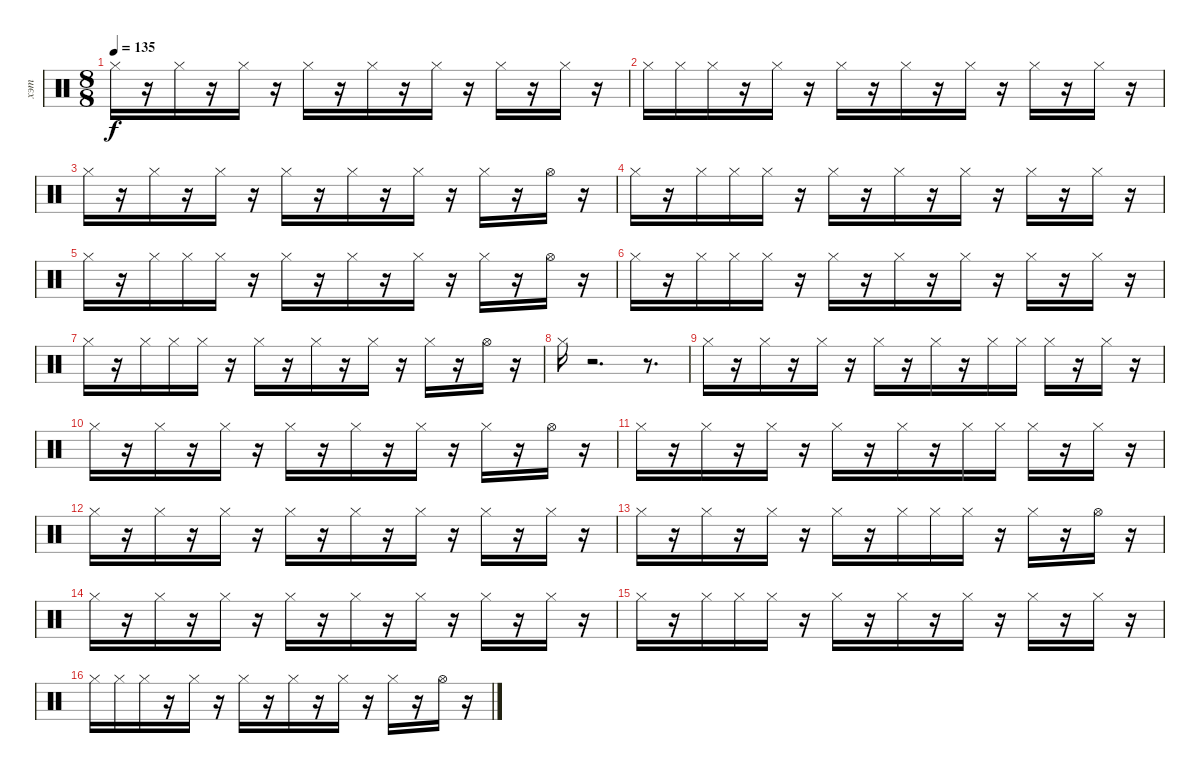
\track ("хэт" "хэт") {instrument percussion}
\staff {score}
\articulation defaults
\ts (8 8)
\tempo 135
\clef neutral
\ks c "Hi-Hat (closed)".16{dy f}
r.16 "Hi-Hat (closed)".16 r.16 "Hi-Hat (closed)".16 r.16 "Hi-Hat (closed)".16 r.16 "Hi-Hat (closed)".16 r.16 "Hi-Hat (closed)".16 r.16 "Hi-Hat (closed)".16 r.16 "Hi-Hat (closed)".16 r.16 |
"Hi-Hat (closed)".16 "Hi-Hat (closed)".16 "Hi-Hat (closed)".16 r.16 "Hi-Hat (closed)".16 r.16 "Hi-Hat (closed)".16 r.16 "Hi-Hat (closed)".16 r.16 "Hi-Hat (closed)".16 r.16 "Hi-Hat (closed)".16 r.16 "Hi-Hat (closed)".16 r.16 |
"Hi-Hat (closed)".16 r.16 "Hi-Hat (closed)".16 r.16 "Hi-Hat (closed)".16 r.16 "Hi-Hat (closed)".16 r.16 "Hi-Hat (closed)".16 r.16 "Hi-Hat (closed)".16 r.16 "Hi-Hat (closed)".16 r.16 "Hi-Hat (open)".16 r.16 |
"Hi-Hat (closed)".16 r.16 "Hi-Hat (closed)".16 "Hi-Hat (closed)".16 "Hi-Hat (closed)".16 r.16 "Hi-Hat (closed)".16 r.16 "Hi-Hat (closed)".16 r.16 "Hi-Hat (closed)".16 r.16 "Hi-Hat (closed)".16 r.16 "Hi-Hat (closed)".16 r.16 |
"Hi-Hat (closed)".16 r.16 "Hi-Hat (closed)".16 "Hi-Hat (closed)".16 "Hi-Hat (closed)".16 r.16 "Hi-Hat (closed)".16 r.16 "Hi-Hat (closed)".16 r.16 "Hi-Hat (closed)".16 r.16 "Hi-Hat (closed)".16 r.16 "Hi-Hat (open)".16 r.16 |
"Hi-Hat (closed)".16 r.16 "Hi-Hat (closed)".16 "Hi-Hat (closed)".16 "Hi-Hat (closed)".16 r.16 "Hi-Hat (closed)".16 r.16 "Hi-Hat (closed)".16 r.16 "Hi-Hat (closed)".16 r.16 "Hi-Hat (closed)".16 r.16 "Hi-Hat (closed)".16 r.16 |
"Hi-Hat (closed)".16 r.16 "Hi-Hat (closed)".16 "Hi-Hat (closed)".16 "Hi-Hat (closed)".16 r.16 "Hi-Hat (closed)".16 r.16 "Hi-Hat (closed)".16 r.16 "Hi-Hat (closed)".16 r.16 "Hi-Hat (closed)".16 r.16 "Hi-Hat (open)".16 r.16 |
"Hi-Hat (closed)".16 r.2{d} r.8{d} |
"Hi-Hat (closed)".16 r.16 "Hi-Hat (closed)".16 r.16 "Hi-Hat (closed)".16 r.16 "Hi-Hat (closed)".16 r.16 "Hi-Hat (closed)".16 r.16 "Hi-Hat (closed)".16 "Hi-Hat (closed)".16 "Hi-Hat (closed)".16 r.16 "Hi-Hat (closed)".16 r.16 |
"Hi-Hat (closed)".16 r.16 "Hi-Hat (closed)".16 r.16 "Hi-Hat (closed)".16 r.16 "Hi-Hat (closed)".16 r.16 "Hi-Hat (closed)".16 r.16 "Hi-Hat (closed)".16 r.16 "Hi-Hat (closed)".16 r.16 "Hi-Hat (open)".16 r.16 |
"Hi-Hat (closed)".16 r.16 "Hi-Hat (closed)".16 r.16 "Hi-Hat (closed)".16 r.16 "Hi-Hat (closed)".16 r.16 "Hi-Hat (closed)".16 r.16 "Hi-Hat (closed)".16 "Hi-Hat (closed)".16 "Hi-Hat (closed)".16 r.16 "Hi-Hat (closed)".16 r.16 |
"Hi-Hat (closed)".16 r.16 "Hi-Hat (closed)".16 r.16 "Hi-Hat (closed)".16 r.16 "Hi-Hat (closed)".16 r.16 "Hi-Hat (closed)".16 r.16 "Hi-Hat (closed)".16 r.16 "Hi-Hat (closed)".16 r.16 "Hi-Hat (closed)".16 r.16 |
"Hi-Hat (closed)".16 r.16 "Hi-Hat (closed)".16 r.16 "Hi-Hat (closed)".16 r.16 "Hi-Hat (closed)".16 r.16 "Hi-Hat (closed)".16 "Hi-Hat (closed)".16 "Hi-Hat (closed)".16 r.16 "Hi-Hat (closed)".16 r.16 "Hi-Hat (open)".16 r.16 |
"Hi-Hat (closed)".16 r.16 "Hi-Hat (closed)".16 r.16 "Hi-Hat (closed)".16 r.16 "Hi-Hat (closed)".16 r.16 "Hi-Hat (closed)".16 r.16 "Hi-Hat (closed)".16 r.16 "Hi-Hat (closed)".16 r.16 "Hi-Hat (closed)".16 r.16 |
"Hi-Hat (closed)".16 r.16 "Hi-Hat (closed)".16 "Hi-Hat (closed)".16 "Hi-Hat (closed)".16 r.16 "Hi-Hat (closed)".16 r.16 "Hi-Hat (closed)".16 r.16 "Hi-Hat (closed)".16 r.16 "Hi-Hat (closed)".16 r.16 "Hi-Hat (closed)".16 r.16 |
"Hi-Hat (closed)".16 "Hi-Hat (closed)".16 "Hi-Hat (closed)".16 r.16 "Hi-Hat (closed)".16 r.16 "Hi-Hat (closed)".16 r.16 "Hi-Hat (closed)".16 r.16 "Hi-Hat (closed)".16 r.16 "Hi-Hat (closed)".16 r.16 "Hi-Hat (open)".16 r.16
